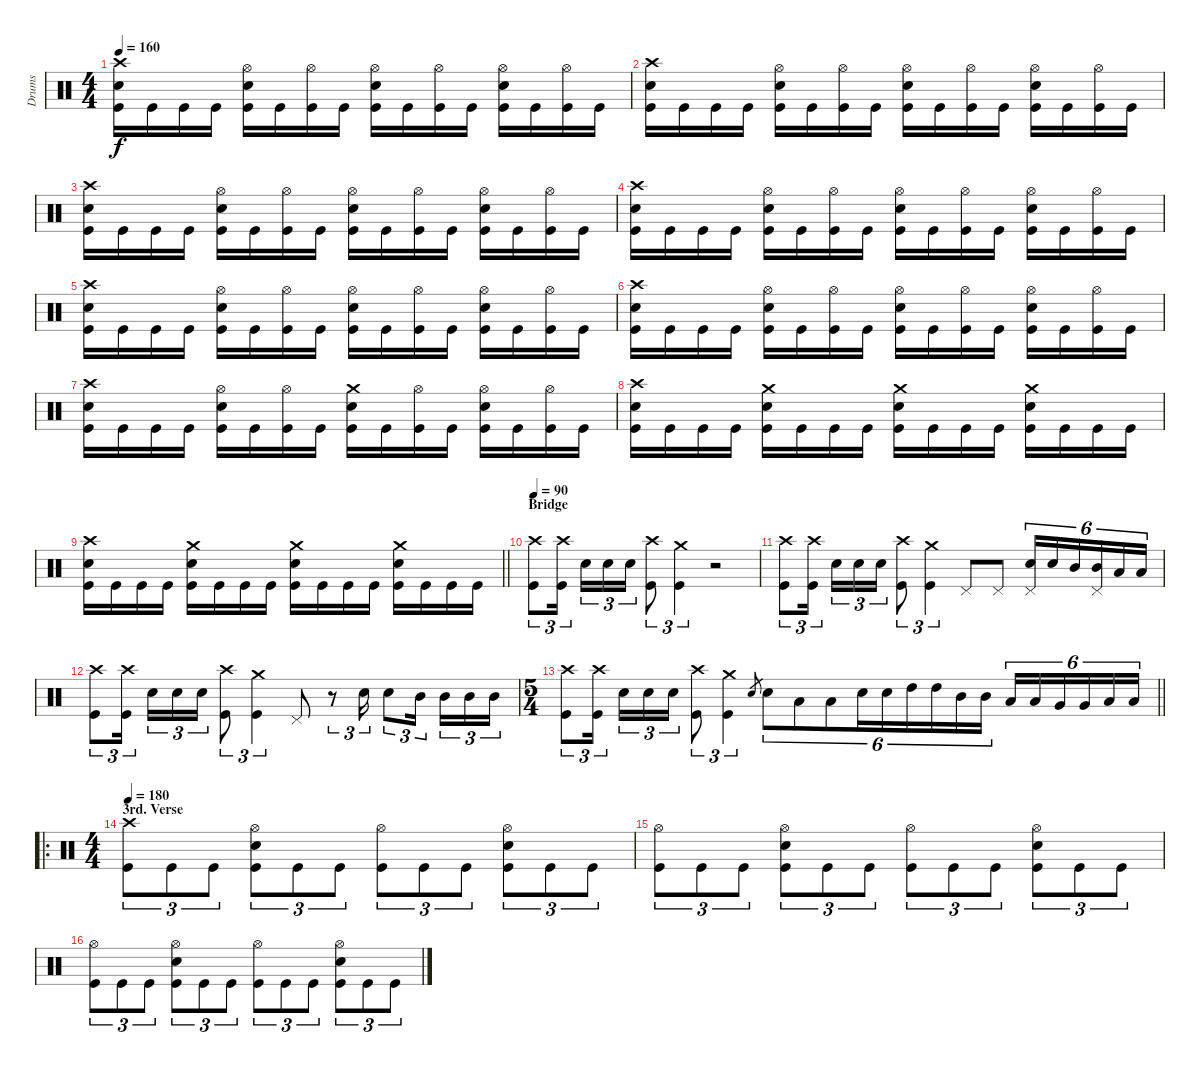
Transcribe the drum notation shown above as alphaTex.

\track ("Drums" "Drums") {instrument percussion}
\staff {score}
\articulation defaults
\ts (4 4)
\tempo 160
\clef neutral
\ks c
("Crash high (hit)" "Snare (hit) 2" "Kick (hit)").16{dy f} "Kick (hit)".16 "Kick (hit)".16 "Kick (hit)".16 ("Hi-Hat (open)" "Snare (hit) 2" "Kick (hit)").16 "Kick (hit)".16 ("Hi-Hat (open)" "Kick (hit)").16 "Kick (hit)".16 ("Hi-Hat (open)" "Snare (hit) 2" "Kick (hit)").16 "Kick (hit)".16 ("Hi-Hat (open)" "Kick (hit)").16 "Kick (hit)".16 ("Hi-Hat (open)" "Snare (hit) 2" "Kick (hit)").16 "Kick (hit)".16 ("Hi-Hat (open)" "Kick (hit)").16 "Kick (hit)".16 |
("Crash high (hit)" "Snare (hit) 2" "Kick (hit)").16 "Kick (hit)".16 "Kick (hit)".16 "Kick (hit)".16 ("Hi-Hat (open)" "Snare (hit) 2" "Kick (hit)").16 "Kick (hit)".16 ("Hi-Hat (open)" "Kick (hit)").16 "Kick (hit)".16 ("Hi-Hat (open)" "Snare (hit) 2" "Kick (hit)").16 "Kick (hit)".16 ("Hi-Hat (open)" "Kick (hit)").16 "Kick (hit)".16 ("Hi-Hat (open)" "Snare (hit) 2" "Kick (hit)").16 "Kick (hit)".16 ("Hi-Hat (open)" "Kick (hit)").16 "Kick (hit)".16 |
("Crash high (hit)" "Snare (hit) 2" "Kick (hit)").16 "Kick (hit)".16 "Kick (hit)".16 "Kick (hit)".16 ("Hi-Hat (open)" "Snare (hit) 2" "Kick (hit)").16 "Kick (hit)".16 ("Hi-Hat (open)" "Kick (hit)").16 "Kick (hit)".16 ("Hi-Hat (open)" "Snare (hit) 2" "Kick (hit)").16 "Kick (hit)".16 ("Hi-Hat (open)" "Kick (hit)").16 "Kick (hit)".16 ("Hi-Hat (open)" "Snare (hit) 2" "Kick (hit)").16 "Kick (hit)".16 ("Hi-Hat (open)" "Kick (hit)").16 "Kick (hit)".16 |
("Crash high (hit)" "Snare (hit) 2" "Kick (hit)").16 "Kick (hit)".16 "Kick (hit)".16 "Kick (hit)".16 ("Hi-Hat (open)" "Snare (hit) 2" "Kick (hit)").16 "Kick (hit)".16 ("Hi-Hat (open)" "Kick (hit)").16 "Kick (hit)".16 ("Hi-Hat (open)" "Snare (hit) 2" "Kick (hit)").16 "Kick (hit)".16 ("Hi-Hat (open)" "Kick (hit)").16 "Kick (hit)".16 ("Hi-Hat (open)" "Snare (hit) 2" "Kick (hit)").16 "Kick (hit)".16 ("Hi-Hat (open)" "Kick (hit)").16 "Kick (hit)".16 |
("Crash high (hit)" "Snare (hit) 2" "Kick (hit)").16 "Kick (hit)".16 "Kick (hit)".16 "Kick (hit)".16 ("Hi-Hat (open)" "Snare (hit) 2" "Kick (hit)").16 "Kick (hit)".16 ("Hi-Hat (open)" "Kick (hit)").16 "Kick (hit)".16 ("Hi-Hat (open)" "Snare (hit) 2" "Kick (hit)").16 "Kick (hit)".16 ("Hi-Hat (open)" "Kick (hit)").16 "Kick (hit)".16 ("Hi-Hat (open)" "Snare (hit) 2" "Kick (hit)").16 "Kick (hit)".16 ("Hi-Hat (open)" "Kick (hit)").16 "Kick (hit)".16 |
("Crash high (hit)" "Snare (hit) 2" "Kick (hit)").16 "Kick (hit)".16 "Kick (hit)".16 "Kick (hit)".16 ("Hi-Hat (open)" "Snare (hit) 2" "Kick (hit)").16 "Kick (hit)".16 ("Hi-Hat (open)" "Kick (hit)").16 "Kick (hit)".16 ("Hi-Hat (open)" "Snare (hit) 2" "Kick (hit)").16 "Kick (hit)".16 ("Hi-Hat (open)" "Kick (hit)").16 "Kick (hit)".16 ("Hi-Hat (open)" "Snare (hit) 2" "Kick (hit)").16 "Kick (hit)".16 ("Hi-Hat (open)" "Kick (hit)").16 "Kick (hit)".16 |
("Crash high (hit)" "Snare (hit) 2" "Kick (hit)").16 "Kick (hit)".16 "Kick (hit)".16 "Kick (hit)".16 ("Hi-Hat (open)" "Snare (hit) 2" "Kick (hit)").16 "Kick (hit)".16 ("Hi-Hat (open)" "Kick (hit)").16 "Kick (hit)".16 ("Crash medium (hit)" "Snare (hit) 2" "Kick (hit)").16 "Kick (hit)".16 ("Hi-Hat (open)" "Kick (hit)").16 "Kick (hit)".16 ("Hi-Hat (open)" "Snare (hit) 2" "Kick (hit)").16 "Kick (hit)".16 ("Hi-Hat (open)" "Kick (hit)").16 "Kick (hit)".16 |
("Crash high (hit)" "Snare (hit) 2" "Kick (hit)").16 "Kick (hit)".16 "Kick (hit)".16 "Kick (hit)".16 ("Crash medium (hit)" "Snare (hit) 2" "Kick (hit)").16 "Kick (hit)".16 "Kick (hit)".16 "Kick (hit)".16 ("Crash medium (hit)" "Snare (hit) 2" "Kick (hit)").16 "Kick (hit)".16 "Kick (hit)".16 "Kick (hit)".16 ("Crash medium (hit)" "Snare (hit) 2" "Kick (hit)").16 "Kick (hit)".16 "Kick (hit)".16 "Kick (hit)".16 |
\barLineRight lightlight
("Crash high (hit)" "Snare (hit) 2" "Kick (hit)").16 "Kick (hit)".16 "Kick (hit)".16 "Kick (hit)".16 ("Crash medium (hit)" "Snare (hit) 2" "Kick (hit)").16 "Kick (hit)".16 "Kick (hit)".16 "Kick (hit)".16 ("Crash medium (hit)" "Snare (hit) 2" "Kick (hit)").16 "Kick (hit)".16 "Kick (hit)".16 "Kick (hit)".16 ("Crash medium (hit)" "Snare (hit) 2" "Kick (hit)").16 "Kick (hit)".16 "Kick (hit)".16 "Kick (hit)".16 |
\section ("" "Bridge")
\tempo 90
("Crash high (hit)" "Kick (hit)").8{tu (3 2)} ("Crash high (hit)" "Kick (hit)").16{tu (3 2)} "Snare (hit) 2".16{tu (3 2)} "Snare (hit) 2".16{tu (3 2)} "Snare (hit) 2".16{tu (3 2)} ("Crash high (hit)" "Kick (hit)").8{tu (3 2)} ("Crash medium (hit)" "Kick (hit)").4{tu (3 2)} r.2 |
("Crash high (hit)" "Kick (hit)").8{tu (3 2)} ("Crash high (hit)" "Kick (hit)").16{tu (3 2)} "Snare (hit) 2".16{tu (3 2)} "Snare (hit) 2".16{tu (3 2)} "Snare (hit) 2".16{tu (3 2)} ("Crash high (hit)" "Kick (hit)").8{tu (3 2)} ("Crash medium (hit)" "Kick (hit)").4{tu (3 2)} "Pedal Hi-Hat (hit)".8 "Pedal Hi-Hat (hit)".8 ("Snare (hit) 2" "Pedal Hi-Hat (hit)").16{tu (6 4)} "Snare (hit) 2".16{tu (6 4)} "Mid Tom (hit)".16{tu (6 4)} ("Mid Tom (hit)" "Pedal Hi-Hat (hit)").16{tu (6 4)} "Low Tom (hit)".16{tu (6 4)} "Low Tom (hit)".16{tu (6 4)} |
("Crash high (hit)" "Kick (hit)").8{tu (3 2)} ("Crash high (hit)" "Kick (hit)").16{tu (3 2)} "Snare (hit) 2".16{tu (3 2)} "Snare (hit) 2".16{tu (3 2)} "Snare (hit) 2".16{tu (3 2)} ("Crash high (hit)" "Kick (hit)").8{tu (3 2)} ("Crash medium (hit)" "Kick (hit)").4{tu (3 2)} "Pedal Hi-Hat (hit)".8 r.8{tu (3 2)} "Snare (hit) 2".16{tu (3 2)} "Snare (hit) 2".8{tu (3 2)} "Mid Tom (hit)".16{tu (3 2)} "Mid Tom (hit)".16{tu (3 2)} "Mid Tom (hit)".16{tu (3 2)} "Mid Tom (hit)".16{tu (3 2)} |
\ts (5 4)
\barLineRight lightlight
("Crash high (hit)" "Kick (hit)").8{tu (3 2)} ("Crash high (hit)" "Kick (hit)").16{tu (3 2)} "Snare (hit) 2".16{tu (3 2)} "Snare (hit) 2".16{tu (3 2)} "Snare (hit) 2".16{tu (3 2)} ("Crash high (hit)" "Kick (hit)").8{tu (3 2)} ("Crash medium (hit)" "Kick (hit)").4{tu (3 2)} "Snare (hit) 2".8{gr} "Snare (hit) 2".8{tu (6 4)} "Low Tom (hit)".8{tu (6 4)} "Low Tom (hit)".8{tu (6 4)} "Snare (hit) 2".16{tu (6 4)} "Snare (hit) 2".16{tu (6 4)} "High Tom (hit)".16{tu (6 4)} "High Tom (hit)".16{tu (6 4)} "Mid Tom (hit)".16{tu (6 4)} "Mid Tom (hit)".16{tu (6 4)} "Low Tom (hit)".16{tu (6 4)} "Low Tom (hit)".16{tu (6 4)} "Very Low Tom (hit)".16{tu (6 4)} "Very Low Tom (hit)".16{tu (6 4)} "Low Floor Tom (hit)".16{tu (6 4)} "Low Floor Tom (hit)".16{tu (6 4)} |
\ro
\ts (4 4)
\section ("" "3rd. Verse")
\tempo 180
("Crash high (hit)" "Kick (hit)").8{tu (3 2)} "Kick (hit)".8{tu (3 2)} "Kick (hit)".8{tu (3 2)} ("Hi-Hat (open)" "Snare (hit) 2" "Kick (hit)").8{tu (3 2)} "Kick (hit)".8{tu (3 2)} "Kick (hit)".8{tu (3 2)} ("Hi-Hat (open)" "Kick (hit)").8{tu (3 2)} "Kick (hit)".8{tu (3 2)} "Kick (hit)".8{tu (3 2)} ("Hi-Hat (open)" "Snare (hit) 2" "Kick (hit)").8{tu (3 2)} "Kick (hit)".8{tu (3 2)} "Kick (hit)".8{tu (3 2)} |
("Hi-Hat (open)" "Kick (hit)").8{tu (3 2)} "Kick (hit)".8{tu (3 2)} "Kick (hit)".8{tu (3 2)} ("Hi-Hat (open)" "Snare (hit) 2" "Kick (hit)").8{tu (3 2)} "Kick (hit)".8{tu (3 2)} "Kick (hit)".8{tu (3 2)} ("Hi-Hat (open)" "Kick (hit)").8{tu (3 2)} "Kick (hit)".8{tu (3 2)} "Kick (hit)".8{tu (3 2)} ("Hi-Hat (open)" "Snare (hit) 2" "Kick (hit)").8{tu (3 2)} "Kick (hit)".8{tu (3 2)} "Kick (hit)".8{tu (3 2)} |
("Hi-Hat (open)" "Kick (hit)").8{tu (3 2)} "Kick (hit)".8{tu (3 2)} "Kick (hit)".8{tu (3 2)} ("Hi-Hat (open)" "Snare (hit) 2" "Kick (hit)").8{tu (3 2)} "Kick (hit)".8{tu (3 2)} "Kick (hit)".8{tu (3 2)} ("Hi-Hat (open)" "Kick (hit)").8{tu (3 2)} "Kick (hit)".8{tu (3 2)} "Kick (hit)".8{tu (3 2)} ("Hi-Hat (open)" "Snare (hit) 2" "Kick (hit)").8{tu (3 2)} "Kick (hit)".8{tu (3 2)} "Kick (hit)".8{tu (3 2)}
